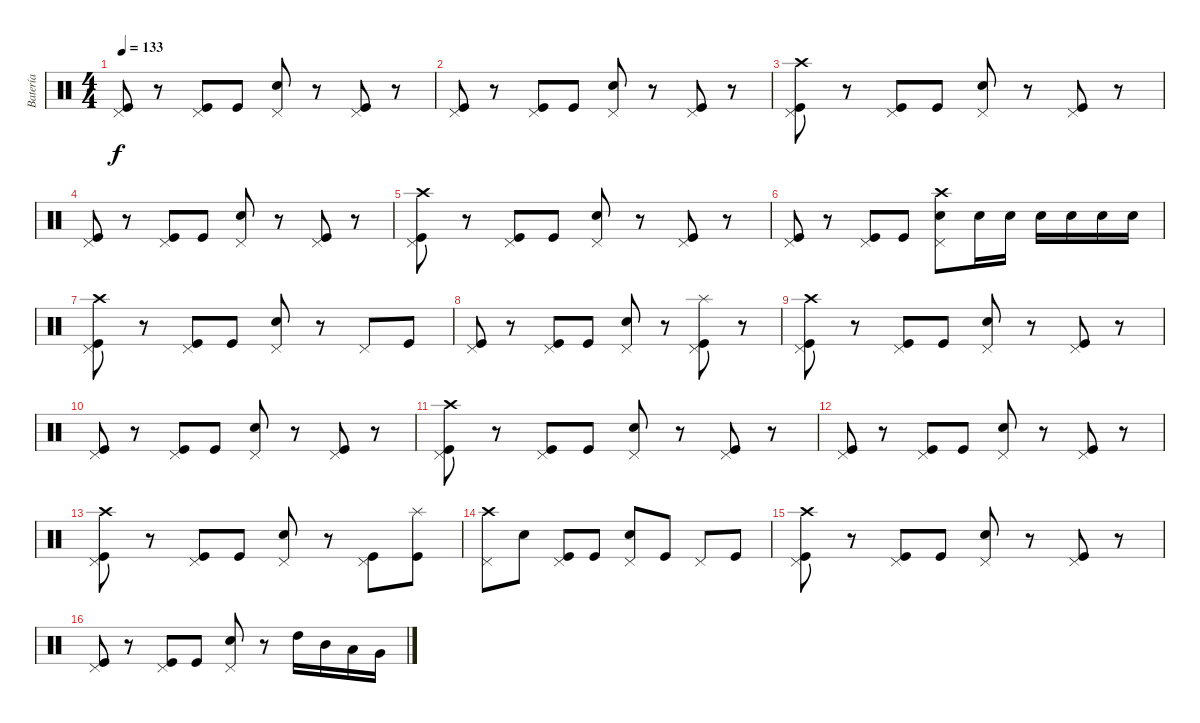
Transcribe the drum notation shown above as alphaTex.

\track ("Batería" "Batería") {instrument percussion}
\staff {score}
\articulation defaults
\ts (4 4)
\tempo 133
\clef neutral
\ks c
("Pedal Hi-Hat (hit)" "Kick (hit)").8{dy f} r.8 ("Pedal Hi-Hat (hit)" "Kick (hit)").8 "Kick (hit)".8 ("Pedal Hi-Hat (hit)" "Snare (hit) 2").8 r.8 ("Pedal Hi-Hat (hit)" "Kick (hit)").8 r.8 |
("Pedal Hi-Hat (hit)" "Kick (hit)").8 r.8 ("Pedal Hi-Hat (hit)" "Kick (hit)").8 "Kick (hit)".8 ("Pedal Hi-Hat (hit)" "Snare (hit) 2").8 r.8 ("Pedal Hi-Hat (hit)" "Kick (hit)").8 r.8 |
("Pedal Hi-Hat (hit)" "Crash high (hit)" "Kick (hit)").8 r.8 ("Pedal Hi-Hat (hit)" "Kick (hit)").8 "Kick (hit)".8 ("Pedal Hi-Hat (hit)" "Snare (hit) 2").8 r.8 ("Pedal Hi-Hat (hit)" "Kick (hit)").8 r.8 |
("Pedal Hi-Hat (hit)" "Kick (hit)").8 r.8 ("Pedal Hi-Hat (hit)" "Kick (hit)").8 "Kick (hit)".8 ("Pedal Hi-Hat (hit)" "Snare (hit) 2").8 r.8 ("Pedal Hi-Hat (hit)" "Kick (hit)").8 r.8 |
("Pedal Hi-Hat (hit)" "Crash high (hit)" "Kick (hit)").8 r.8 ("Pedal Hi-Hat (hit)" "Kick (hit)").8 "Kick (hit)".8 ("Pedal Hi-Hat (hit)" "Snare (hit) 2").8 r.8 ("Pedal Hi-Hat (hit)" "Kick (hit)").8 r.8 |
("Pedal Hi-Hat (hit)" "Kick (hit)").8 r.8 ("Pedal Hi-Hat (hit)" "Kick (hit)").8 "Kick (hit)".8 ("Pedal Hi-Hat (hit)" "Crash high (hit)" "Snare (hit) 2").8 "Snare (hit) 2".16 "Snare (hit) 2".16 "Snare (hit) 2".16 "Snare (hit) 2".16 "Snare (hit) 2".16 "Snare (hit) 2".16 |
("Pedal Hi-Hat (hit)" "Crash high (hit)" "Kick (hit)").8 r.8 ("Pedal Hi-Hat (hit)" "Kick (hit)").8 "Kick (hit)".8 ("Pedal Hi-Hat (hit)" "Snare (hit) 2").8 r.8 "Pedal Hi-Hat (hit)".8 "Kick (hit)".8 |
("Pedal Hi-Hat (hit)" "Kick (hit)").8 r.8 ("Pedal Hi-Hat (hit)" "Kick (hit)").8 "Kick (hit)".8 ("Pedal Hi-Hat (hit)" "Snare (hit) 2").8 r.8 ("Pedal Hi-Hat (hit)" "Splash (hit)" "Kick (hit)").8 r.8 |
("Pedal Hi-Hat (hit)" "Crash high (hit)" "Kick (hit)").8 r.8 ("Pedal Hi-Hat (hit)" "Kick (hit)").8 "Kick (hit)".8 ("Pedal Hi-Hat (hit)" "Snare (hit) 2").8 r.8 ("Pedal Hi-Hat (hit)" "Kick (hit)").8 r.8 |
("Pedal Hi-Hat (hit)" "Kick (hit)").8 r.8 ("Pedal Hi-Hat (hit)" "Kick (hit)").8 "Kick (hit)".8 ("Pedal Hi-Hat (hit)" "Snare (hit) 2").8 r.8 ("Pedal Hi-Hat (hit)" "Kick (hit)").8 r.8 |
("Pedal Hi-Hat (hit)" "Crash high (hit)" "Kick (hit)").8 r.8 ("Pedal Hi-Hat (hit)" "Kick (hit)").8 "Kick (hit)".8 ("Pedal Hi-Hat (hit)" "Snare (hit) 2").8 r.8 ("Pedal Hi-Hat (hit)" "Kick (hit)").8 r.8 |
("Pedal Hi-Hat (hit)" "Kick (hit)").8 r.8 ("Pedal Hi-Hat (hit)" "Kick (hit)").8 "Kick (hit)".8 ("Pedal Hi-Hat (hit)" "Snare (hit) 2").8 r.8 ("Pedal Hi-Hat (hit)" "Kick (hit)").8 r.8 |
("Pedal Hi-Hat (hit)" "Crash high (hit)" "Kick (hit)").8 r.8 ("Pedal Hi-Hat (hit)" "Kick (hit)").8 "Kick (hit)".8 ("Pedal Hi-Hat (hit)" "Snare (hit) 2").8 r.8 ("Pedal Hi-Hat (hit)" "Kick (hit)").8 ("Splash (hit)" "Kick (hit)").8 |
("Pedal Hi-Hat (hit)" "Crash high (hit)").8 "Snare (hit) 2".8 ("Pedal Hi-Hat (hit)" "Kick (hit)").8 "Kick (hit)".8 ("Pedal Hi-Hat (hit)" "Snare (hit) 2").8 "Kick (hit)".8 "Pedal Hi-Hat (hit)".8 "Kick (hit)".8 |
("Pedal Hi-Hat (hit)" "Crash high (hit)" "Kick (hit)").8 r.8 ("Pedal Hi-Hat (hit)" "Kick (hit)").8 "Kick (hit)".8 ("Pedal Hi-Hat (hit)" "Snare (hit) 2").8 r.8 ("Pedal Hi-Hat (hit)" "Kick (hit)").8 r.8 |
("Pedal Hi-Hat (hit)" "Kick (hit)").8 r.8 ("Pedal Hi-Hat (hit)" "Kick (hit)").8 "Kick (hit)".8 ("Pedal Hi-Hat (hit)" "Snare (hit) 2").8 r.8 "High Tom (hit)".16 "Mid Tom (hit)".16 "Low Tom (hit)".16 "Very Low Tom (hit)".16
